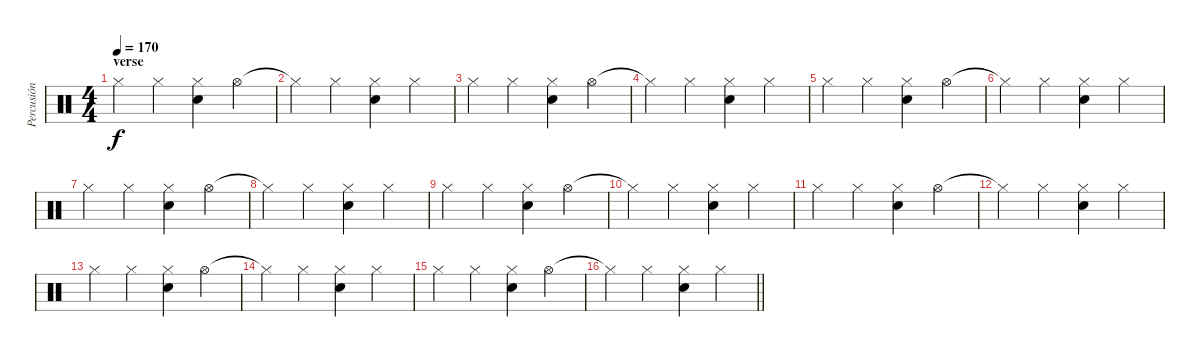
\track ("Percusión" "Percusión") {instrument percussion}
\staff {score}
\articulation defaults
\ts (4 4)
\section ("" "verse")
\tempo 170
\clef neutral
\ks c "Hi-Hat (closed)".4{dy f} "Hi-Hat (closed)".4
("Electric Snare (hit)" "Hi-Hat (closed)").4 "Hi-Hat (open)".4 |
"Hi-Hat (closed)"{t}.4 "Hi-Hat (closed)".4 ("Electric Snare (hit)" "Hi-Hat (closed)").4 "Hi-Hat (closed)".4 |
"Hi-Hat (closed)".4 "Hi-Hat (closed)".4 ("Electric Snare (hit)" "Hi-Hat (closed)").4 "Hi-Hat (open)".4 |
"Hi-Hat (closed)"{t}.4 "Hi-Hat (closed)".4 ("Electric Snare (hit)" "Hi-Hat (closed)").4 "Hi-Hat (closed)".4 |
"Hi-Hat (closed)".4 "Hi-Hat (closed)".4 ("Electric Snare (hit)" "Hi-Hat (closed)").4 "Hi-Hat (open)".4 |
"Hi-Hat (closed)"{t}.4 "Hi-Hat (closed)".4 ("Electric Snare (hit)" "Hi-Hat (closed)").4 "Hi-Hat (closed)".4 |
"Hi-Hat (closed)".4 "Hi-Hat (closed)".4 ("Electric Snare (hit)" "Hi-Hat (closed)").4 "Hi-Hat (open)".4 |
"Hi-Hat (closed)"{t}.4 "Hi-Hat (closed)".4 ("Electric Snare (hit)" "Hi-Hat (closed)").4 "Hi-Hat (closed)".4 |
"Hi-Hat (closed)".4 "Hi-Hat (closed)".4 ("Electric Snare (hit)" "Hi-Hat (closed)").4 "Hi-Hat (open)".4 |
"Hi-Hat (closed)"{t}.4 "Hi-Hat (closed)".4 ("Electric Snare (hit)" "Hi-Hat (closed)").4 "Hi-Hat (closed)".4 |
"Hi-Hat (closed)".4 "Hi-Hat (closed)".4 ("Electric Snare (hit)" "Hi-Hat (closed)").4 "Hi-Hat (open)".4 |
"Hi-Hat (closed)"{t}.4 "Hi-Hat (closed)".4 ("Electric Snare (hit)" "Hi-Hat (closed)").4 "Hi-Hat (closed)".4 |
"Hi-Hat (closed)".4 "Hi-Hat (closed)".4 ("Electric Snare (hit)" "Hi-Hat (closed)").4 "Hi-Hat (open)".4 |
"Hi-Hat (closed)"{t}.4 "Hi-Hat (closed)".4 ("Electric Snare (hit)" "Hi-Hat (closed)").4 "Hi-Hat (closed)".4 |
"Hi-Hat (closed)".4 "Hi-Hat (closed)".4 ("Electric Snare (hit)" "Hi-Hat (closed)").4 "Hi-Hat (open)".4 |
\barLineRight lightlight "Hi-Hat (closed)"{t}.4 "Hi-Hat (closed)".4
("Electric Snare (hit)" "Hi-Hat (closed)").4 "Hi-Hat (closed)".4
